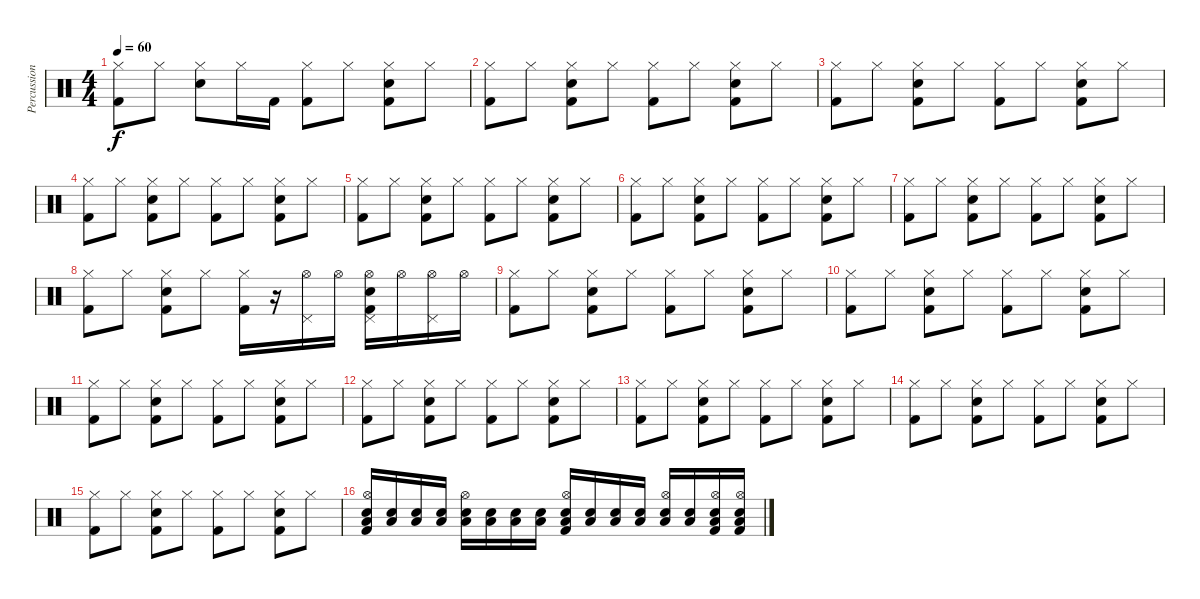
\track ("Percussion" "Percussion") {instrument percussion}
\staff {score}
\articulation defaults
\ts (4 4)
\tempo 60
\clef neutral
\ks c
("Hi-Hat (closed)" "Kick (hit) 2").8{dy f} "Hi-Hat (closed)".8 ("Hi-Hat (closed)" "Electric Snare (hit)").8 "Hi-Hat (closed)".16 "Kick (hit) 2".16 ("Hi-Hat (closed)" "Kick (hit) 2").8 "Hi-Hat (closed)".8 ("Hi-Hat (closed)" "Electric Snare (hit)" "Kick (hit) 2").8 "Hi-Hat (closed)".8 |
("Hi-Hat (closed)" "Kick (hit) 2").8 "Hi-Hat (closed)".8 ("Hi-Hat (closed)" "Electric Snare (hit)" "Kick (hit) 2").8 "Hi-Hat (closed)".8 ("Hi-Hat (closed)" "Kick (hit) 2").8 "Hi-Hat (closed)".8 ("Hi-Hat (closed)" "Electric Snare (hit)" "Kick (hit) 2").8 "Hi-Hat (closed)".8 |
("Hi-Hat (closed)" "Kick (hit) 2").8 "Hi-Hat (closed)".8 ("Hi-Hat (closed)" "Electric Snare (hit)" "Kick (hit) 2").8 "Hi-Hat (closed)".8 ("Hi-Hat (closed)" "Kick (hit) 2").8 "Hi-Hat (closed)".8 ("Hi-Hat (closed)" "Electric Snare (hit)" "Kick (hit) 2").8 "Hi-Hat (closed)".8 |
("Hi-Hat (closed)" "Kick (hit) 2").8 "Hi-Hat (closed)".8 ("Hi-Hat (closed)" "Electric Snare (hit)" "Kick (hit) 2").8 "Hi-Hat (closed)".8 ("Hi-Hat (closed)" "Kick (hit) 2").8 "Hi-Hat (closed)".8 ("Hi-Hat (closed)" "Electric Snare (hit)" "Kick (hit) 2").8 "Hi-Hat (closed)".8 |
("Hi-Hat (closed)" "Kick (hit) 2").8 "Hi-Hat (closed)".8 ("Hi-Hat (closed)" "Electric Snare (hit)" "Kick (hit) 2").8 "Hi-Hat (closed)".8 ("Hi-Hat (closed)" "Kick (hit) 2").8 "Hi-Hat (closed)".8 ("Hi-Hat (closed)" "Electric Snare (hit)" "Kick (hit) 2").8 "Hi-Hat (closed)".8 |
("Hi-Hat (closed)" "Kick (hit) 2").8 "Hi-Hat (closed)".8 ("Hi-Hat (closed)" "Electric Snare (hit)" "Kick (hit) 2").8 "Hi-Hat (closed)".8 ("Hi-Hat (closed)" "Kick (hit) 2").8 "Hi-Hat (closed)".8 ("Hi-Hat (closed)" "Electric Snare (hit)" "Kick (hit) 2").8 "Hi-Hat (closed)".8 |
("Hi-Hat (closed)" "Kick (hit) 2").8 "Hi-Hat (closed)".8 ("Hi-Hat (closed)" "Electric Snare (hit)" "Kick (hit) 2").8 "Hi-Hat (closed)".8 ("Hi-Hat (closed)" "Kick (hit) 2").8 "Hi-Hat (closed)".8 ("Hi-Hat (closed)" "Electric Snare (hit)" "Kick (hit) 2").8 "Hi-Hat (closed)".8 |
("Hi-Hat (closed)" "Kick (hit) 2").8 "Hi-Hat (closed)".8 ("Hi-Hat (closed)" "Electric Snare (hit)" "Kick (hit) 2").8 "Hi-Hat (closed)".8 ("Hi-Hat (closed)" "Kick (hit) 2").16 r.16 ("Hi-Hat (open)" "Pedal Hi-Hat (hit)").16 "Hi-Hat (open)".16 ("Hi-Hat (open)" "Pedal Hi-Hat (hit)" "Electric Snare (hit)" "Kick (hit) 2").16 "Hi-Hat (open)".16 ("Hi-Hat (open)" "Pedal Hi-Hat (hit)").16 "Hi-Hat (open)".16 |
("Hi-Hat (closed)" "Kick (hit) 2").8 "Hi-Hat (closed)".8 ("Hi-Hat (closed)" "Electric Snare (hit)" "Kick (hit) 2").8 "Hi-Hat (closed)".8 ("Hi-Hat (closed)" "Kick (hit) 2").8 "Hi-Hat (closed)".8 ("Hi-Hat (closed)" "Electric Snare (hit)" "Kick (hit) 2").8 "Hi-Hat (closed)".8 |
("Hi-Hat (closed)" "Kick (hit) 2").8 "Hi-Hat (closed)".8 ("Hi-Hat (closed)" "Electric Snare (hit)" "Kick (hit) 2").8 "Hi-Hat (closed)".8 ("Hi-Hat (closed)" "Kick (hit) 2").8 "Hi-Hat (closed)".8 ("Hi-Hat (closed)" "Electric Snare (hit)" "Kick (hit) 2").8 "Hi-Hat (closed)".8 |
("Hi-Hat (closed)" "Kick (hit) 2").8 "Hi-Hat (closed)".8 ("Hi-Hat (closed)" "Electric Snare (hit)" "Kick (hit) 2").8 "Hi-Hat (closed)".8 ("Hi-Hat (closed)" "Kick (hit) 2").8 "Hi-Hat (closed)".8 ("Hi-Hat (closed)" "Electric Snare (hit)" "Kick (hit) 2").8 "Hi-Hat (closed)".8 |
("Hi-Hat (closed)" "Kick (hit) 2").8 "Hi-Hat (closed)".8 ("Hi-Hat (closed)" "Electric Snare (hit)" "Kick (hit) 2").8 "Hi-Hat (closed)".8 ("Hi-Hat (closed)" "Kick (hit) 2").8 "Hi-Hat (closed)".8 ("Hi-Hat (closed)" "Electric Snare (hit)" "Kick (hit) 2").8 "Hi-Hat (closed)".8 |
("Hi-Hat (closed)" "Kick (hit) 2").8 "Hi-Hat (closed)".8 ("Hi-Hat (closed)" "Electric Snare (hit)" "Kick (hit) 2").8 "Hi-Hat (closed)".8 ("Hi-Hat (closed)" "Kick (hit) 2").8 "Hi-Hat (closed)".8 ("Hi-Hat (closed)" "Electric Snare (hit)" "Kick (hit) 2").8 "Hi-Hat (closed)".8 |
("Hi-Hat (closed)" "Kick (hit) 2").8 "Hi-Hat (closed)".8 ("Hi-Hat (closed)" "Electric Snare (hit)" "Kick (hit) 2").8 "Hi-Hat (closed)".8 ("Hi-Hat (closed)" "Kick (hit) 2").8 "Hi-Hat (closed)".8 ("Hi-Hat (closed)" "Electric Snare (hit)" "Kick (hit) 2").8 "Hi-Hat (closed)".8 |
("Hi-Hat (closed)" "Kick (hit) 2").8 "Hi-Hat (closed)".8 ("Hi-Hat (closed)" "Electric Snare (hit)" "Kick (hit) 2").8 "Hi-Hat (closed)".8 ("Hi-Hat (closed)" "Kick (hit) 2").8 "Hi-Hat (closed)".8 ("Hi-Hat (closed)" "Electric Snare (hit)" "Kick (hit) 2").8 "Hi-Hat (closed)".8 |
("Low Tom (hit)" "Electric Snare (hit)" "Hi-Hat (open)" "Kick (hit) 2").16{volume 9} ("Low Tom (hit)" "Electric Snare (hit)").16{volume 13} ("Low Tom (hit)" "Electric Snare (hit)").16 ("Low Tom (hit)" "Electric Snare (hit)").16 ("Low Tom (hit)" "Electric Snare (hit)" "Hi-Hat (open)").16 ("Low Tom (hit)" "Electric Snare (hit)").16 ("Low Tom (hit)" "Electric Snare (hit)").16 ("Low Tom (hit)" "Electric Snare (hit)").16 ("Low Tom (hit)" "Electric Snare (hit)" "Hi-Hat (open)" "Kick (hit) 2").16 ("Low Tom (hit)" "Electric Snare (hit)").16 ("Low Tom (hit)" "Electric Snare (hit)").16 ("Low Tom (hit)" "Electric Snare (hit)").16 ("Low Tom (hit)" "Electric Snare (hit)" "Hi-Hat (open)").16 ("Low Tom (hit)" "Electric Snare (hit)").16 ("Low Tom (hit)" "Electric Snare (hit)" "Hi-Hat (open)" "Kick (hit) 2").16 ("Low Tom (hit)" "Electric Snare (hit)" "Hi-Hat (open)" "Kick (hit) 2").16
